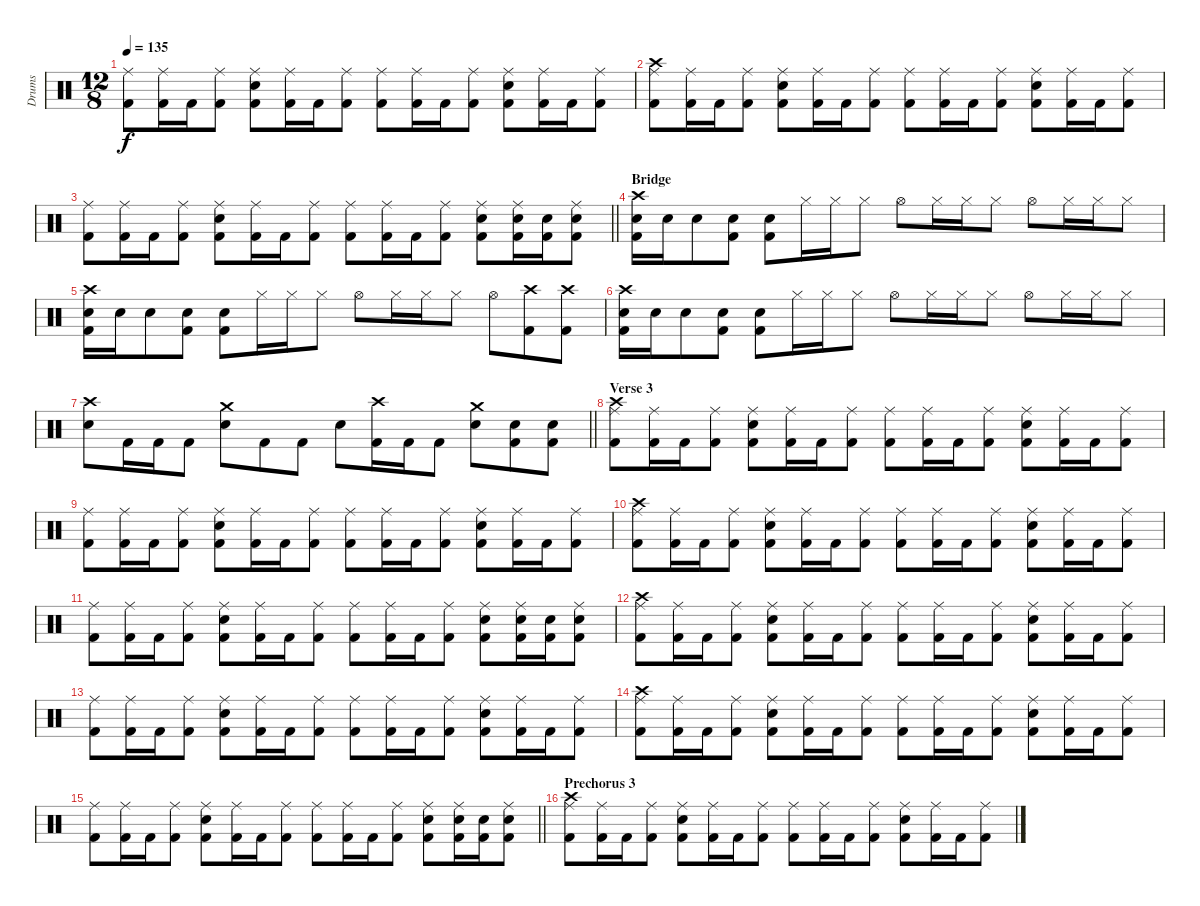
\track ("Drums" "Drums") {instrument percussion}
\staff {score}
\articulation defaults
\ts (12 8)
\tempo 135
\clef neutral
\ks c
("Ride (middle)" "Kick (hit) 2").8{dy f} ("Ride (middle)" "Kick (hit) 2").16 "Kick (hit) 2".16 ("Ride (middle)" "Kick (hit) 2").8 ("Ride (middle)" "Snare (hit) 2" "Kick (hit) 2").8 ("Ride (middle)" "Kick (hit) 2").16 "Kick (hit) 2".16 ("Ride (middle)" "Kick (hit) 2").8 ("Ride (middle)" "Kick (hit) 2").8 ("Ride (middle)" "Kick (hit) 2").16 "Kick (hit) 2".16 ("Ride (middle)" "Kick (hit) 2").8 ("Ride (middle)" "Snare (hit) 2" "Kick (hit) 2").8 ("Ride (middle)" "Kick (hit) 2").16 "Kick (hit) 2".16 ("Ride (middle)" "Kick (hit) 2").8 |
("Crash high (hit)" "Ride (middle)" "Kick (hit) 2").8 ("Ride (middle)" "Kick (hit) 2").16 "Kick (hit) 2".16 ("Ride (middle)" "Kick (hit) 2").8 ("Ride (middle)" "Snare (hit) 2" "Kick (hit) 2").8 ("Ride (middle)" "Kick (hit) 2").16 "Kick (hit) 2".16 ("Ride (middle)" "Kick (hit) 2").8 ("Ride (middle)" "Kick (hit) 2").8 ("Ride (middle)" "Kick (hit) 2").16 "Kick (hit) 2".16 ("Ride (middle)" "Kick (hit) 2").8 ("Ride (middle)" "Snare (hit) 2" "Kick (hit) 2").8 ("Ride (middle)" "Kick (hit) 2").16 "Kick (hit) 2".16 ("Ride (middle)" "Kick (hit) 2").8 |
\barLineRight lightlight
("Ride (middle)" "Kick (hit) 2").8 ("Ride (middle)" "Kick (hit) 2").16 "Kick (hit) 2".16 ("Ride (middle)" "Kick (hit) 2").8 ("Ride (middle)" "Snare (hit) 2" "Kick (hit) 2").8 ("Ride (middle)" "Kick (hit) 2").16 "Kick (hit) 2".16 ("Ride (middle)" "Kick (hit) 2").8 ("Ride (middle)" "Kick (hit) 2").8 ("Ride (middle)" "Kick (hit) 2").16 "Kick (hit) 2".16 ("Ride (middle)" "Kick (hit) 2").8 ("Ride (middle)" "Snare (hit) 2" "Kick (hit) 2").8 ("Ride (middle)" "Snare (hit) 2" "Kick (hit) 2").16 ("Snare (hit) 2" "Kick (hit) 2").16 ("Ride (middle)" "Snare (hit) 2" "Kick (hit) 2").8 |
\section ("" "Bridge")
("Crash high (hit)" "Snare (hit) 2" "Kick (hit) 2").16 "Snare (hit) 2".16 "Snare (hit) 2".8 ("Snare (hit) 2" "Kick (hit) 2").8 ("Snare (hit) 2" "Kick (hit) 2").8 "Hi-Hat (closed)".16 "Hi-Hat (closed)".16 "Hi-Hat (closed)".8 "Hi-Hat (open)".8 "Hi-Hat (closed)".16 "Hi-Hat (closed)".16 "Hi-Hat (closed)".8 "Hi-Hat (open)".8 "Hi-Hat (closed)".16 "Hi-Hat (closed)".16 "Hi-Hat (closed)".8 |
("Crash high (hit)" "Snare (hit) 2" "Kick (hit) 2").16 "Snare (hit) 2".16 "Snare (hit) 2".8 ("Snare (hit) 2" "Kick (hit) 2").8 ("Snare (hit) 2" "Kick (hit) 2").8 "Hi-Hat (closed)".16 "Hi-Hat (closed)".16 "Hi-Hat (closed)".8 "Hi-Hat (open)".8 "Hi-Hat (closed)".16 "Hi-Hat (closed)".16 "Hi-Hat (closed)".8 "Hi-Hat (open)".8 ("Crash high (hit)" "Kick (hit) 2").8 ("Crash high (hit)" "Kick (hit) 2").8 |
("Crash high (hit)" "Snare (hit) 2" "Kick (hit) 2").16 "Snare (hit) 2".16 "Snare (hit) 2".8 ("Snare (hit) 2" "Kick (hit) 2").8 ("Snare (hit) 2" "Kick (hit) 2").8 "Hi-Hat (closed)".16 "Hi-Hat (closed)".16 "Hi-Hat (closed)".8 "Hi-Hat (open)".8 "Hi-Hat (closed)".16 "Hi-Hat (closed)".16 "Hi-Hat (closed)".8 "Hi-Hat (open)".8 "Hi-Hat (closed)".16 "Hi-Hat (closed)".16 "Hi-Hat (closed)".8 |
\barLineRight lightlight
("Crash high (hit)" "Snare (hit) 2").8 "Kick (hit) 2".16 "Kick (hit) 2".16 "Kick (hit) 2".8 ("Crash medium (hit)" "Snare (hit) 2").8 "Kick (hit) 2".8 "Kick (hit) 2".8 "Snare (hit) 2".8 ("Crash high (hit)" "Kick (hit) 2").16 "Kick (hit) 2".16 "Kick (hit) 2".8 ("Crash medium (hit)" "Snare (hit) 2").8 ("Snare (hit) 2" "Kick (hit) 2").8 ("Snare (hit) 2" "Kick (hit) 2").8 |
\section ("" "Verse 3")
("Crash high (hit)" "Ride (middle)" "Kick (hit) 2").8 ("Ride (middle)" "Kick (hit) 2").16 "Kick (hit) 2".16 ("Ride (middle)" "Kick (hit) 2").8 ("Ride (middle)" "Snare (hit) 2" "Kick (hit) 2").8 ("Ride (middle)" "Kick (hit) 2").16 "Kick (hit) 2".16 ("Ride (middle)" "Kick (hit) 2").8 ("Ride (middle)" "Kick (hit) 2").8 ("Ride (middle)" "Kick (hit) 2").16 "Kick (hit) 2".16 ("Ride (middle)" "Kick (hit) 2").8 ("Ride (middle)" "Snare (hit) 2" "Kick (hit) 2").8 ("Ride (middle)" "Kick (hit) 2").16 "Kick (hit) 2".16 ("Ride (middle)" "Kick (hit) 2").8 |
("Ride (middle)" "Kick (hit) 2").8 ("Ride (middle)" "Kick (hit) 2").16 "Kick (hit) 2".16 ("Ride (middle)" "Kick (hit) 2").8 ("Ride (middle)" "Snare (hit) 2" "Kick (hit) 2").8 ("Ride (middle)" "Kick (hit) 2").16 "Kick (hit) 2".16 ("Ride (middle)" "Kick (hit) 2").8 ("Ride (middle)" "Kick (hit) 2").8 ("Ride (middle)" "Kick (hit) 2").16 "Kick (hit) 2".16 ("Ride (middle)" "Kick (hit) 2").8 ("Ride (middle)" "Snare (hit) 2" "Kick (hit) 2").8 ("Ride (middle)" "Kick (hit) 2").16 "Kick (hit) 2".16 ("Ride (middle)" "Kick (hit) 2").8 |
("Crash high (hit)" "Ride (middle)" "Kick (hit) 2").8 ("Ride (middle)" "Kick (hit) 2").16 "Kick (hit) 2".16 ("Ride (middle)" "Kick (hit) 2").8 ("Ride (middle)" "Snare (hit) 2" "Kick (hit) 2").8 ("Ride (middle)" "Kick (hit) 2").16 "Kick (hit) 2".16 ("Ride (middle)" "Kick (hit) 2").8 ("Ride (middle)" "Kick (hit) 2").8 ("Ride (middle)" "Kick (hit) 2").16 "Kick (hit) 2".16 ("Ride (middle)" "Kick (hit) 2").8 ("Ride (middle)" "Snare (hit) 2" "Kick (hit) 2").8 ("Ride (middle)" "Kick (hit) 2").16 "Kick (hit) 2".16 ("Ride (middle)" "Kick (hit) 2").8 |
("Ride (middle)" "Kick (hit) 2").8 ("Ride (middle)" "Kick (hit) 2").16 "Kick (hit) 2".16 ("Ride (middle)" "Kick (hit) 2").8 ("Ride (middle)" "Snare (hit) 2" "Kick (hit) 2").8 ("Ride (middle)" "Kick (hit) 2").16 "Kick (hit) 2".16 ("Ride (middle)" "Kick (hit) 2").8 ("Ride (middle)" "Kick (hit) 2").8 ("Ride (middle)" "Kick (hit) 2").16 "Kick (hit) 2".16 ("Ride (middle)" "Kick (hit) 2").8 ("Ride (middle)" "Snare (hit) 2" "Kick (hit) 2").8 ("Ride (middle)" "Snare (hit) 2" "Kick (hit) 2").16 ("Snare (hit) 2" "Kick (hit) 2").16 ("Ride (middle)" "Snare (hit) 2" "Kick (hit) 2").8 |
("Crash high (hit)" "Ride (middle)" "Kick (hit) 2").8 ("Ride (middle)" "Kick (hit) 2").16 "Kick (hit) 2".16 ("Ride (middle)" "Kick (hit) 2").8 ("Ride (middle)" "Snare (hit) 2" "Kick (hit) 2").8 ("Ride (middle)" "Kick (hit) 2").16 "Kick (hit) 2".16 ("Ride (middle)" "Kick (hit) 2").8 ("Ride (middle)" "Kick (hit) 2").8 ("Ride (middle)" "Kick (hit) 2").16 "Kick (hit) 2".16 ("Ride (middle)" "Kick (hit) 2").8 ("Ride (middle)" "Snare (hit) 2" "Kick (hit) 2").8 ("Ride (middle)" "Kick (hit) 2").16 "Kick (hit) 2".16 ("Ride (middle)" "Kick (hit) 2").8 |
("Ride (middle)" "Kick (hit) 2").8 ("Ride (middle)" "Kick (hit) 2").16 "Kick (hit) 2".16 ("Ride (middle)" "Kick (hit) 2").8 ("Ride (middle)" "Snare (hit) 2" "Kick (hit) 2").8 ("Ride (middle)" "Kick (hit) 2").16 "Kick (hit) 2".16 ("Ride (middle)" "Kick (hit) 2").8 ("Ride (middle)" "Kick (hit) 2").8 ("Ride (middle)" "Kick (hit) 2").16 "Kick (hit) 2".16 ("Ride (middle)" "Kick (hit) 2").8 ("Ride (middle)" "Snare (hit) 2" "Kick (hit) 2").8 ("Ride (middle)" "Kick (hit) 2").16 "Kick (hit) 2".16 ("Ride (middle)" "Kick (hit) 2").8 |
("Crash high (hit)" "Ride (middle)" "Kick (hit) 2").8 ("Ride (middle)" "Kick (hit) 2").16 "Kick (hit) 2".16 ("Ride (middle)" "Kick (hit) 2").8 ("Ride (middle)" "Snare (hit) 2" "Kick (hit) 2").8 ("Ride (middle)" "Kick (hit) 2").16 "Kick (hit) 2".16 ("Ride (middle)" "Kick (hit) 2").8 ("Ride (middle)" "Kick (hit) 2").8 ("Ride (middle)" "Kick (hit) 2").16 "Kick (hit) 2".16 ("Ride (middle)" "Kick (hit) 2").8 ("Ride (middle)" "Snare (hit) 2" "Kick (hit) 2").8 ("Ride (middle)" "Kick (hit) 2").16 "Kick (hit) 2".16 ("Ride (middle)" "Kick (hit) 2").8 |
\barLineRight lightlight
("Ride (middle)" "Kick (hit) 2").8 ("Ride (middle)" "Kick (hit) 2").16 "Kick (hit) 2".16 ("Ride (middle)" "Kick (hit) 2").8 ("Ride (middle)" "Snare (hit) 2" "Kick (hit) 2").8 ("Ride (middle)" "Kick (hit) 2").16 "Kick (hit) 2".16 ("Ride (middle)" "Kick (hit) 2").8 ("Ride (middle)" "Kick (hit) 2").8 ("Ride (middle)" "Kick (hit) 2").16 "Kick (hit) 2".16 ("Ride (middle)" "Kick (hit) 2").8 ("Ride (middle)" "Snare (hit) 2" "Kick (hit) 2").8 ("Ride (middle)" "Snare (hit) 2" "Kick (hit) 2").16 ("Snare (hit) 2" "Kick (hit) 2").16 ("Ride (middle)" "Snare (hit) 2" "Kick (hit) 2").8 |
\section ("" "Prechorus 3")
("Crash high (hit)" "Ride (middle)" "Kick (hit) 2").8 ("Ride (middle)" "Kick (hit) 2").16 "Kick (hit) 2".16 ("Ride (middle)" "Kick (hit) 2").8 ("Ride (middle)" "Snare (hit) 2" "Kick (hit) 2").8 ("Ride (middle)" "Kick (hit) 2").16 "Kick (hit) 2".16 ("Ride (middle)" "Kick (hit) 2").8 ("Ride (middle)" "Kick (hit) 2").8 ("Ride (middle)" "Kick (hit) 2").16 "Kick (hit) 2".16 ("Ride (middle)" "Kick (hit) 2").8 ("Ride (middle)" "Snare (hit) 2" "Kick (hit) 2").8 ("Ride (middle)" "Kick (hit) 2").16 "Kick (hit) 2".16 ("Ride (middle)" "Kick (hit) 2").8
